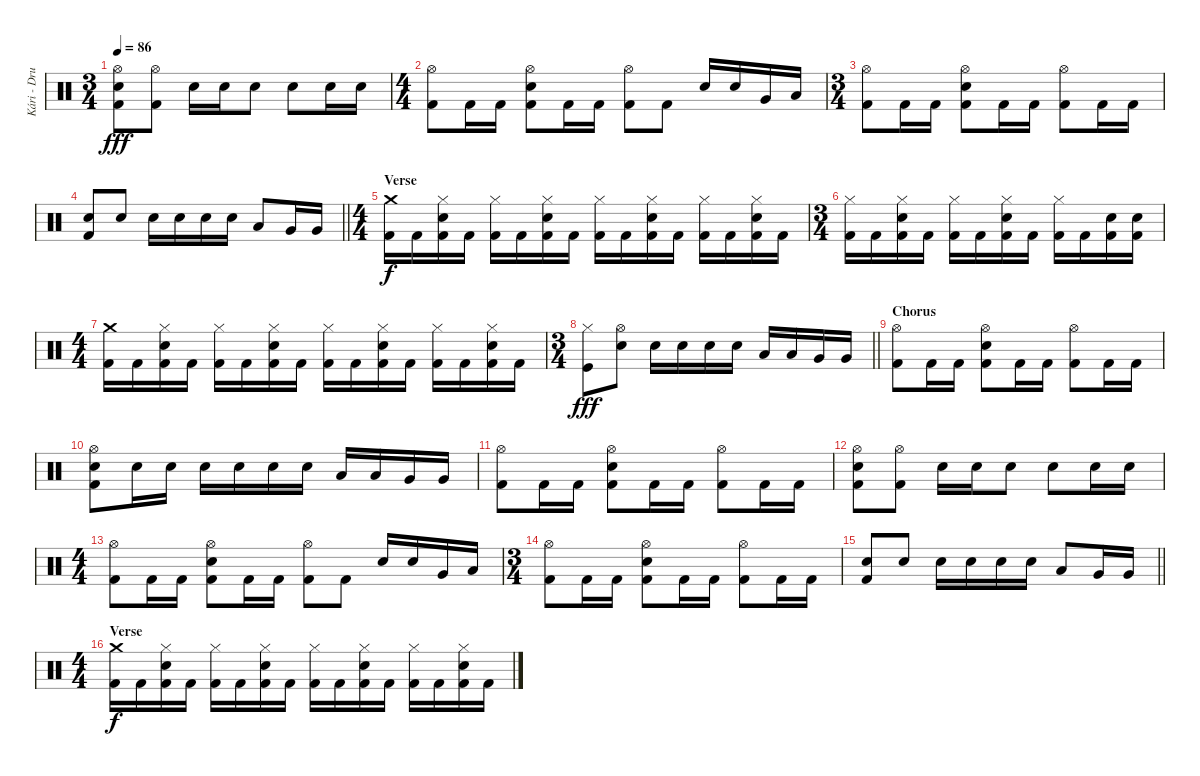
\track ("Kári - Drums" "Kári - Dru") {instrument percussion}
\staff {score}
\articulation defaults
\ts (3 4)
\tempo 86
\clef neutral
\ks c
("Hi-Hat (open)" "Electric Snare (hit)" "Kick (hit) 2").8{dy fff} ("Hi-Hat (open)" "Kick (hit) 2").8 "Electric Snare (hit)".16 "Electric Snare (hit)".16 "Electric Snare (hit)".8 "Electric Snare (hit)".8 "Electric Snare (hit)".16 "Electric Snare (hit)".16 |
\ts (4 4)
("Hi-Hat (open)" "Kick (hit) 2").8 "Kick (hit) 2".16 "Kick (hit) 2".16 ("Hi-Hat (open)" "Electric Snare (hit)" "Kick (hit) 2").8 "Kick (hit) 2".16 "Kick (hit) 2".16 ("Hi-Hat (open)" "Kick (hit) 2").8 "Kick (hit) 2".8 "Electric Snare (hit)".16 "Electric Snare (hit)".16 "Very Low Tom (hit)".16 "Low Floor Tom (hit)".16 |
\ts (3 4)
("Hi-Hat (open)" "Kick (hit) 2").8 "Kick (hit) 2".16 "Kick (hit) 2".16 ("Hi-Hat (open)" "Electric Snare (hit)" "Kick (hit) 2").8 "Kick (hit) 2".16 "Kick (hit) 2".16 ("Hi-Hat (open)" "Kick (hit) 2").8 "Kick (hit) 2".16 "Kick (hit) 2".16 |
\barLineRight lightlight
("Electric Snare (hit)" "Kick (hit) 2").8 "Electric Snare (hit)".8 "Electric Snare (hit)".16 "Electric Snare (hit)".16 "Electric Snare (hit)".16 "Electric Snare (hit)".16 "Low Tom (hit)".8 "Very Low Tom (hit)".16 "Very Low Tom (hit)".16 |
\ts (4 4)
\section ("" "Verse")
("Crash medium (hit)" "Kick (hit) 2").16{dy f} "Kick (hit) 2".16 ("Hi-Hat (closed)" "Electric Snare (hit)" "Kick (hit) 2").16 "Kick (hit) 2".16 ("Hi-Hat (closed)" "Kick (hit) 2").16 "Kick (hit) 2".16 ("Hi-Hat (closed)" "Electric Snare (hit)" "Kick (hit) 2").16 "Kick (hit) 2".16 ("Hi-Hat (closed)" "Kick (hit) 2").16 "Kick (hit) 2".16 ("Hi-Hat (closed)" "Electric Snare (hit)" "Kick (hit) 2").16 "Kick (hit) 2".16 ("Hi-Hat (closed)" "Kick (hit) 2").16 "Kick (hit) 2".16 ("Hi-Hat (closed)" "Electric Snare (hit)" "Kick (hit) 2").16 "Kick (hit) 2".16 |
\ts (3 4)
("Hi-Hat (closed)" "Kick (hit) 2").16 "Kick (hit) 2".16 ("Hi-Hat (closed)" "Electric Snare (hit)" "Kick (hit) 2").16 "Kick (hit) 2".16 ("Hi-Hat (closed)" "Kick (hit) 2").16 "Kick (hit) 2".16 ("Hi-Hat (closed)" "Electric Snare (hit)" "Kick (hit) 2").16 "Kick (hit) 2".16 ("Hi-Hat (closed)" "Kick (hit) 2").16 "Kick (hit) 2".16 ("Electric Snare (hit)" "Kick (hit) 2").16 ("Electric Snare (hit)" "Kick (hit) 2").16 |
\ts (4 4)
("Crash medium (hit)" "Kick (hit) 2").16 "Kick (hit) 2".16 ("Hi-Hat (closed)" "Electric Snare (hit)" "Kick (hit) 2").16 "Kick (hit) 2".16 ("Hi-Hat (closed)" "Kick (hit) 2").16 "Kick (hit) 2".16 ("Hi-Hat (closed)" "Electric Snare (hit)" "Kick (hit) 2").16 "Kick (hit) 2".16 ("Hi-Hat (closed)" "Kick (hit) 2").16 "Kick (hit) 2".16 ("Hi-Hat (closed)" "Electric Snare (hit)" "Kick (hit) 2").16 "Kick (hit) 2".16 ("Hi-Hat (closed)" "Kick (hit) 2").16 "Kick (hit) 2".16 ("Hi-Hat (closed)" "Electric Snare (hit)" "Kick (hit) 2").16 "Kick (hit) 2".16 |
\ts (3 4)
\barLineRight lightlight
("Hi-Hat (closed)" "Kick (hit)").8{dy fff} ("Hi-Hat (open)" "Electric Snare (hit)").8 "Electric Snare (hit)".16 "Electric Snare (hit)".16 "Electric Snare (hit)".16 "Electric Snare (hit)".16 "Low Tom (hit)".16 "Low Tom (hit)".16 "Very Low Tom (hit)".16 "Very Low Tom (hit)".16 |
\section ("" "Chorus ")
("Hi-Hat (open)" "Kick (hit) 2").8 "Kick (hit) 2".16 "Kick (hit) 2".16 ("Hi-Hat (open)" "Electric Snare (hit)" "Kick (hit) 2").8 "Kick (hit) 2".16 "Kick (hit) 2".16 ("Hi-Hat (open)" "Kick (hit) 2").8 "Kick (hit) 2".16 "Kick (hit) 2".16 |
("Hi-Hat (open)" "Electric Snare (hit)" "Kick (hit) 2").8 "Electric Snare (hit)".16 "Electric Snare (hit)".16 "Electric Snare (hit)".16 "Electric Snare (hit)".16 "Electric Snare (hit)".16 "Electric Snare (hit)".16 "Low Tom (hit)".16 "Low Tom (hit)".16 "Very Low Tom (hit)".16 "Very Low Tom (hit)".16 |
("Hi-Hat (open)" "Kick (hit) 2").8 "Kick (hit) 2".16 "Kick (hit) 2".16 ("Hi-Hat (open)" "Electric Snare (hit)" "Kick (hit) 2").8 "Kick (hit) 2".16 "Kick (hit) 2".16 ("Hi-Hat (open)" "Kick (hit) 2").8 "Kick (hit) 2".16 "Kick (hit) 2".16 |
("Hi-Hat (open)" "Electric Snare (hit)" "Kick (hit) 2").8 ("Hi-Hat (open)" "Kick (hit) 2").8 "Electric Snare (hit)".16 "Electric Snare (hit)".16 "Electric Snare (hit)".8 "Electric Snare (hit)".8 "Electric Snare (hit)".16 "Electric Snare (hit)".16 |
\ts (4 4)
("Hi-Hat (open)" "Kick (hit) 2").8 "Kick (hit) 2".16 "Kick (hit) 2".16 ("Hi-Hat (open)" "Electric Snare (hit)" "Kick (hit) 2").8 "Kick (hit) 2".16 "Kick (hit) 2".16 ("Hi-Hat (open)" "Kick (hit) 2").8 "Kick (hit) 2".8 "Electric Snare (hit)".16 "Electric Snare (hit)".16 "Very Low Tom (hit)".16 "Low Floor Tom (hit)".16 |
\ts (3 4)
("Hi-Hat (open)" "Kick (hit) 2").8 "Kick (hit) 2".16 "Kick (hit) 2".16 ("Hi-Hat (open)" "Electric Snare (hit)" "Kick (hit) 2").8 "Kick (hit) 2".16 "Kick (hit) 2".16 ("Hi-Hat (open)" "Kick (hit) 2").8 "Kick (hit) 2".16 "Kick (hit) 2".16 |
\barLineRight lightlight
("Electric Snare (hit)" "Kick (hit) 2").8 "Electric Snare (hit)".8 "Electric Snare (hit)".16 "Electric Snare (hit)".16 "Electric Snare (hit)".16 "Electric Snare (hit)".16 "Low Tom (hit)".8 "Very Low Tom (hit)".16 "Very Low Tom (hit)".16 |
\ts (4 4)
\section ("" "Verse")
("Crash medium (hit)" "Kick (hit) 2").16{dy f} "Kick (hit) 2".16 ("Hi-Hat (closed)" "Electric Snare (hit)" "Kick (hit) 2").16 "Kick (hit) 2".16 ("Hi-Hat (closed)" "Kick (hit) 2").16 "Kick (hit) 2".16 ("Hi-Hat (closed)" "Electric Snare (hit)" "Kick (hit) 2").16 "Kick (hit) 2".16 ("Hi-Hat (closed)" "Kick (hit) 2").16 "Kick (hit) 2".16 ("Hi-Hat (closed)" "Electric Snare (hit)" "Kick (hit) 2").16 "Kick (hit) 2".16 ("Hi-Hat (closed)" "Kick (hit) 2").16 "Kick (hit) 2".16 ("Hi-Hat (closed)" "Electric Snare (hit)" "Kick (hit) 2").16 "Kick (hit) 2".16
